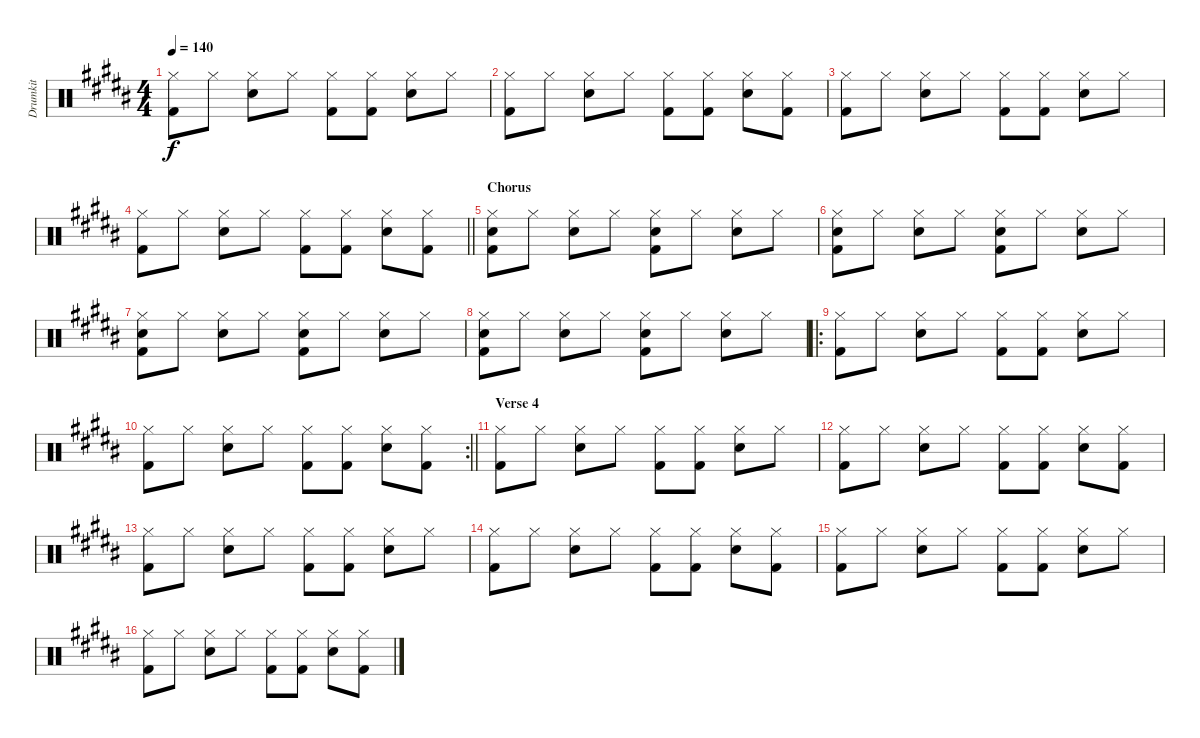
\track ("Drumkit" "Drumkit") {instrument percussion}
\staff {score}
\articulation defaults
\ts (4 4)
\tempo 140
\clef neutral
\ks b
("Hi-Hat (closed)" "Kick (hit) 2").8{dy f} "Hi-Hat (closed)".8 ("Hi-Hat (closed)" "Snare (hit) 2").8 "Hi-Hat (closed)".8 ("Hi-Hat (closed)" "Kick (hit) 2").8 ("Hi-Hat (closed)" "Kick (hit) 2").8 ("Hi-Hat (closed)" "Snare (hit) 2").8 "Hi-Hat (closed)".8 |
("Hi-Hat (closed)" "Kick (hit) 2").8 "Hi-Hat (closed)".8 ("Hi-Hat (closed)" "Snare (hit) 2").8 "Hi-Hat (closed)".8 ("Hi-Hat (closed)" "Kick (hit) 2").8 ("Hi-Hat (closed)" "Kick (hit) 2").8 ("Hi-Hat (closed)" "Snare (hit) 2").8 ("Hi-Hat (closed)" "Kick (hit) 2").8 |
("Hi-Hat (closed)" "Kick (hit) 2").8 "Hi-Hat (closed)".8 ("Hi-Hat (closed)" "Snare (hit) 2").8 "Hi-Hat (closed)".8 ("Hi-Hat (closed)" "Kick (hit) 2").8 ("Hi-Hat (closed)" "Kick (hit) 2").8 ("Hi-Hat (closed)" "Snare (hit) 2").8 "Hi-Hat (closed)".8 |
\barLineRight lightlight
("Hi-Hat (closed)" "Kick (hit) 2").8 "Hi-Hat (closed)".8 ("Hi-Hat (closed)" "Snare (hit) 2").8 "Hi-Hat (closed)".8 ("Hi-Hat (closed)" "Kick (hit) 2").8 ("Hi-Hat (closed)" "Kick (hit) 2").8 ("Hi-Hat (closed)" "Snare (hit) 2").8 ("Hi-Hat (closed)" "Kick (hit) 2").8 |
\section ("" "Chorus")
("Hi-Hat (closed)" "Snare (hit) 2" "Kick (hit) 2").8 "Hi-Hat (closed)".8 ("Hi-Hat (closed)" "Snare (hit) 2").8 "Hi-Hat (closed)".8 ("Hi-Hat (closed)" "Snare (hit) 2" "Kick (hit) 2").8 "Hi-Hat (closed)".8 ("Hi-Hat (closed)" "Snare (hit) 2").8 "Hi-Hat (closed)".8 |
("Hi-Hat (closed)" "Snare (hit) 2" "Kick (hit) 2").8 "Hi-Hat (closed)".8 ("Hi-Hat (closed)" "Snare (hit) 2").8 "Hi-Hat (closed)".8 ("Hi-Hat (closed)" "Snare (hit) 2" "Kick (hit) 2").8 "Hi-Hat (closed)".8 ("Hi-Hat (closed)" "Snare (hit) 2").8 "Hi-Hat (closed)".8 |
("Hi-Hat (closed)" "Snare (hit) 2" "Kick (hit) 2").8 "Hi-Hat (closed)".8 ("Hi-Hat (closed)" "Snare (hit) 2").8 "Hi-Hat (closed)".8 ("Hi-Hat (closed)" "Snare (hit) 2" "Kick (hit) 2").8 "Hi-Hat (closed)".8 ("Hi-Hat (closed)" "Snare (hit) 2").8 "Hi-Hat (closed)".8 |
("Hi-Hat (closed)" "Snare (hit) 2" "Kick (hit) 2").8 "Hi-Hat (closed)".8 ("Hi-Hat (closed)" "Snare (hit) 2").8 "Hi-Hat (closed)".8 ("Hi-Hat (closed)" "Snare (hit) 2" "Kick (hit) 2").8 "Hi-Hat (closed)".8 ("Hi-Hat (closed)" "Snare (hit) 2").8 "Hi-Hat (closed)".8 |
\ro
("Hi-Hat (closed)" "Kick (hit) 2").8 "Hi-Hat (closed)".8 ("Hi-Hat (closed)" "Snare (hit) 2").8 "Hi-Hat (closed)".8 ("Hi-Hat (closed)" "Kick (hit) 2").8 ("Hi-Hat (closed)" "Kick (hit) 2").8 ("Hi-Hat (closed)" "Snare (hit) 2").8 "Hi-Hat (closed)".8 |
\rc 2
\barLineRight lightlight
("Hi-Hat (closed)" "Kick (hit) 2").8 "Hi-Hat (closed)".8 ("Hi-Hat (closed)" "Snare (hit) 2").8 "Hi-Hat (closed)".8 ("Hi-Hat (closed)" "Kick (hit) 2").8 ("Hi-Hat (closed)" "Kick (hit) 2").8 ("Hi-Hat (closed)" "Snare (hit) 2").8 ("Hi-Hat (closed)" "Kick (hit) 2").8 |
\section ("" "Verse 4")
("Hi-Hat (closed)" "Kick (hit) 2").8 "Hi-Hat (closed)".8 ("Hi-Hat (closed)" "Snare (hit) 2").8 "Hi-Hat (closed)".8 ("Hi-Hat (closed)" "Kick (hit) 2").8 ("Hi-Hat (closed)" "Kick (hit) 2").8 ("Hi-Hat (closed)" "Snare (hit) 2").8 "Hi-Hat (closed)".8 |
("Hi-Hat (closed)" "Kick (hit) 2").8 "Hi-Hat (closed)".8 ("Hi-Hat (closed)" "Snare (hit) 2").8 "Hi-Hat (closed)".8 ("Hi-Hat (closed)" "Kick (hit) 2").8 ("Hi-Hat (closed)" "Kick (hit) 2").8 ("Hi-Hat (closed)" "Snare (hit) 2").8 ("Hi-Hat (closed)" "Kick (hit) 2").8 |
("Hi-Hat (closed)" "Kick (hit) 2").8 "Hi-Hat (closed)".8 ("Hi-Hat (closed)" "Snare (hit) 2").8 "Hi-Hat (closed)".8 ("Hi-Hat (closed)" "Kick (hit) 2").8 ("Hi-Hat (closed)" "Kick (hit) 2").8 ("Hi-Hat (closed)" "Snare (hit) 2").8 "Hi-Hat (closed)".8 |
("Hi-Hat (closed)" "Kick (hit) 2").8 "Hi-Hat (closed)".8 ("Hi-Hat (closed)" "Snare (hit) 2").8 "Hi-Hat (closed)".8 ("Hi-Hat (closed)" "Kick (hit) 2").8 ("Hi-Hat (closed)" "Kick (hit) 2").8 ("Hi-Hat (closed)" "Snare (hit) 2").8 ("Hi-Hat (closed)" "Kick (hit) 2").8 |
("Hi-Hat (closed)" "Kick (hit) 2").8 "Hi-Hat (closed)".8 ("Hi-Hat (closed)" "Snare (hit) 2").8 "Hi-Hat (closed)".8 ("Hi-Hat (closed)" "Kick (hit) 2").8 ("Hi-Hat (closed)" "Kick (hit) 2").8 ("Hi-Hat (closed)" "Snare (hit) 2").8 "Hi-Hat (closed)".8 |
("Hi-Hat (closed)" "Kick (hit) 2").8 "Hi-Hat (closed)".8 ("Hi-Hat (closed)" "Snare (hit) 2").8 "Hi-Hat (closed)".8 ("Hi-Hat (closed)" "Kick (hit) 2").8 ("Hi-Hat (closed)" "Kick (hit) 2").8 ("Hi-Hat (closed)" "Snare (hit) 2").8 ("Hi-Hat (closed)" "Kick (hit) 2").8
